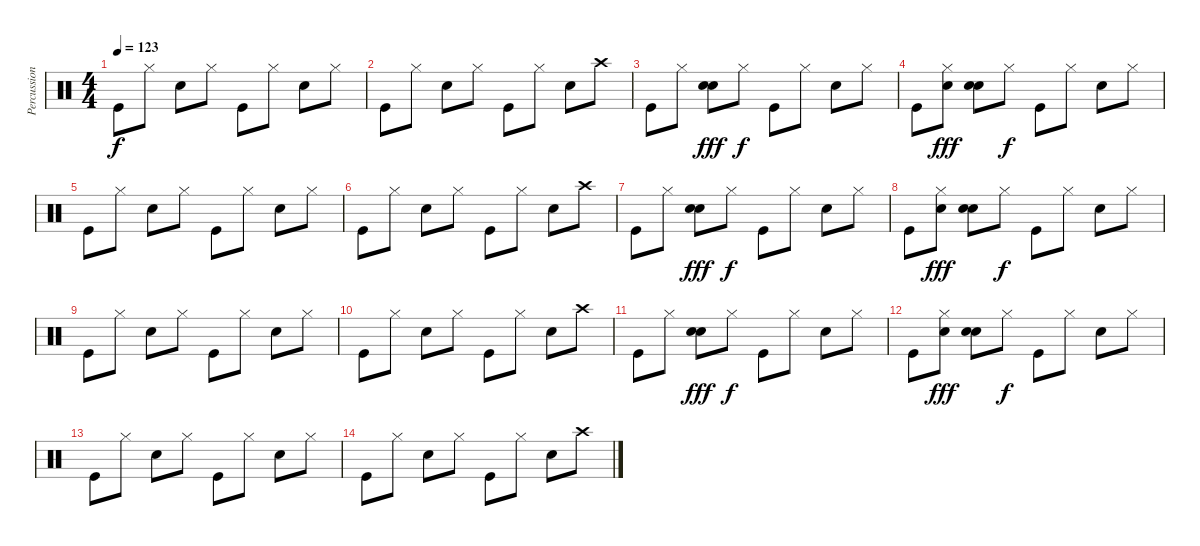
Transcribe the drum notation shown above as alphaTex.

\track ("Percussion" "Percussion") {instrument percussion}
\staff {score}
\articulation defaults
\ts (4 4)
\tempo 123
\clef neutral
\ks c "Kick (hit)".8{dy f} "Hi-Hat (closed)".8 "Snare (hit) 2".8 "Hi-Hat (closed)".8 "Kick (hit)".8 "Hi-Hat (closed)".8 "Snare (hit) 2".8 "Hi-Hat (closed)".8
|
"Kick (hit)".8 "Hi-Hat (closed)".8 "Snare (hit) 2".8 "Hi-Hat (closed)".8 "Kick (hit)".8 "Hi-Hat (closed)".8 "Snare (hit) 2".8 "Crash high (hit)".8 |
"Kick (hit)".8 "Hi-Hat (closed)".8 ("Hand Clap (hit)" "Snare (hit) 2").8{dy fff} "Hi-Hat (closed)".8{dy f} "Kick (hit)".8 "Hi-Hat (closed)".8 "Snare (hit) 2".8 "Hi-Hat (closed)".8 |
"Kick (hit)".8 ("Hi-Hat (closed)" "Hand Clap (hit)").8{dy fff} ("Hand Clap (hit)" "Snare (hit) 2").8 "Hi-Hat (closed)".8{dy f} "Kick (hit)".8 "Hi-Hat (closed)".8 "Snare (hit) 2".8 "Hi-Hat (closed)".8 |
"Kick (hit)".8 "Hi-Hat (closed)".8 "Snare (hit) 2".8 "Hi-Hat (closed)".8 "Kick (hit)".8 "Hi-Hat (closed)".8 "Snare (hit) 2".8 "Hi-Hat (closed)".8 |
"Kick (hit)".8 "Hi-Hat (closed)".8 "Snare (hit) 2".8 "Hi-Hat (closed)".8 "Kick (hit)".8 "Hi-Hat (closed)".8 "Snare (hit) 2".8 "Crash high (hit)".8 |
"Kick (hit)".8 "Hi-Hat (closed)".8 ("Hand Clap (hit)" "Snare (hit) 2").8{dy fff} "Hi-Hat (closed)".8{dy f} "Kick (hit)".8 "Hi-Hat (closed)".8 "Snare (hit) 2".8 "Hi-Hat (closed)".8 |
"Kick (hit)".8 ("Hi-Hat (closed)" "Hand Clap (hit)").8{dy fff} ("Hand Clap (hit)" "Snare (hit) 2").8 "Hi-Hat (closed)".8{dy f} "Kick (hit)".8 "Hi-Hat (closed)".8 "Snare (hit) 2".8 "Hi-Hat (closed)".8 |
"Kick (hit)".8 "Hi-Hat (closed)".8 "Snare (hit) 2".8 "Hi-Hat (closed)".8 "Kick (hit)".8 "Hi-Hat (closed)".8 "Snare (hit) 2".8 "Hi-Hat (closed)".8 |
"Kick (hit)".8 "Hi-Hat (closed)".8 "Snare (hit) 2".8 "Hi-Hat (closed)".8 "Kick (hit)".8 "Hi-Hat (closed)".8 "Snare (hit) 2".8 "Crash high (hit)".8 |
"Kick (hit)".8 "Hi-Hat (closed)".8 ("Hand Clap (hit)" "Snare (hit) 2").8{dy fff} "Hi-Hat (closed)".8{dy f} "Kick (hit)".8 "Hi-Hat (closed)".8 "Snare (hit) 2".8 "Hi-Hat (closed)".8 |
"Kick (hit)".8 ("Hi-Hat (closed)" "Hand Clap (hit)").8{dy fff} ("Hand Clap (hit)" "Snare (hit) 2").8 "Hi-Hat (closed)".8{dy f} "Kick (hit)".8 "Hi-Hat (closed)".8 "Snare (hit) 2".8 "Hi-Hat (closed)".8 |
"Kick (hit)".8 "Hi-Hat (closed)".8 "Snare (hit) 2".8 "Hi-Hat (closed)".8 "Kick (hit)".8 "Hi-Hat (closed)".8 "Snare (hit) 2".8 "Hi-Hat (closed)".8 |
"Kick (hit)".8 "Hi-Hat (closed)".8 "Snare (hit) 2".8 "Hi-Hat (closed)".8 "Kick (hit)".8 "Hi-Hat (closed)".8 "Snare (hit) 2".8 "Crash high (hit)".8
